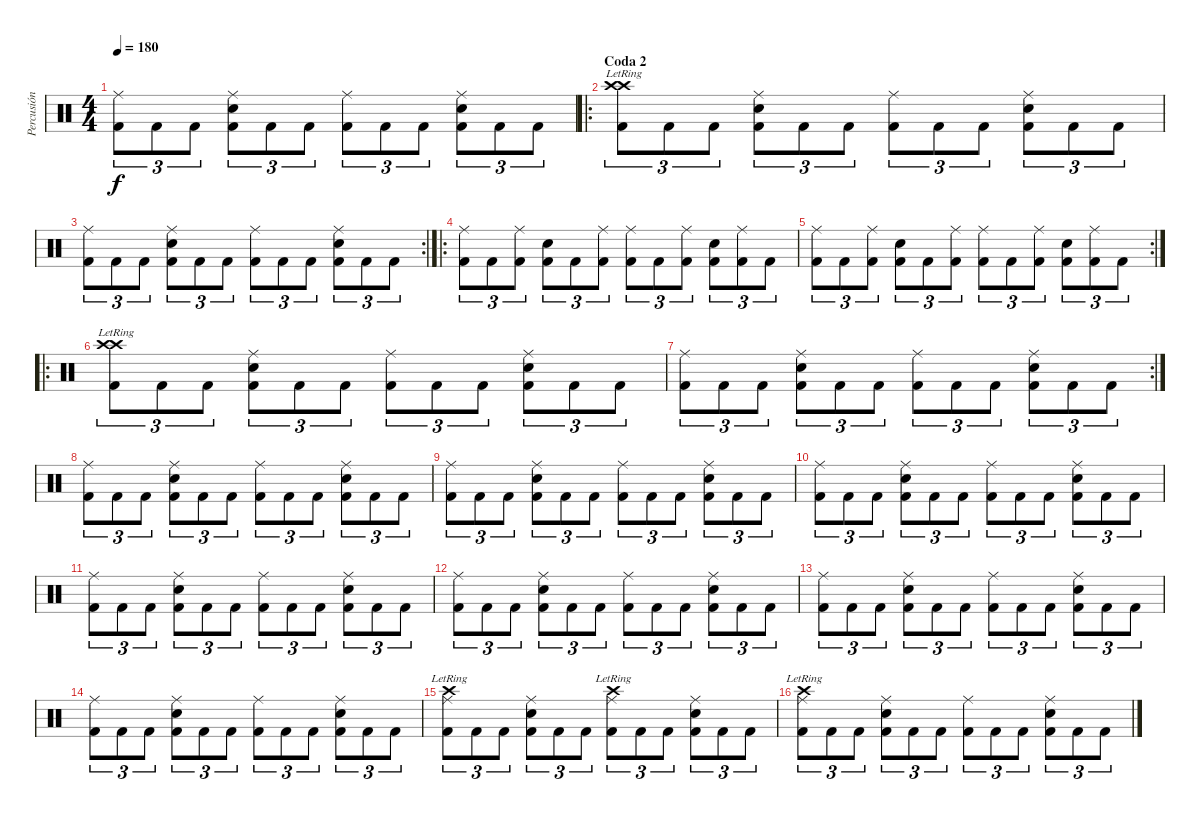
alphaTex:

\track ("Percusión" "Percusión") {instrument percussion}
\staff {score}
\articulation defaults
\ts (4 4)
\tempo 180
\clef neutral
\ks c
("Ride (middle)" "Kick (hit) 2").8{tu (3 2) dy f} "Kick (hit) 2".8{tu (3 2)} "Kick (hit) 2".8{tu (3 2)} ("Ride (middle)" "Snare (hit) 2" "Kick (hit) 2").8{tu (3 2)} "Kick (hit) 2".8{tu (3 2)} "Kick (hit) 2".8{tu (3 2)} ("Ride (middle)" "Kick (hit) 2").8{tu (3 2)} "Kick (hit) 2".8{tu (3 2)} "Kick (hit) 2".8{tu (3 2)} ("Ride (middle)" "Snare (hit) 2" "Kick (hit) 2").8{tu (3 2)} "Kick (hit) 2".8{tu (3 2)} "Kick (hit) 2".8{tu (3 2)} |
\ro
\section ("" "Coda 2")
("Crash high (hit)"{lr} "Crash high (hit)"{lr} "Kick (hit) 2").8{tu (3 2)} "Kick (hit) 2".8{tu (3 2)} "Kick (hit) 2".8{tu (3 2)} ("Ride (middle)" "Snare (hit) 2" "Kick (hit) 2").8{tu (3 2)} "Kick (hit) 2".8{tu (3 2)} "Kick (hit) 2".8{tu (3 2)} ("Ride (middle)" "Kick (hit) 2").8{tu (3 2)} "Kick (hit) 2".8{tu (3 2)} "Kick (hit) 2".8{tu (3 2)} ("Ride (middle)" "Snare (hit) 2" "Kick (hit) 2").8{tu (3 2)} "Kick (hit) 2".8{tu (3 2)} "Kick (hit) 2".8{tu (3 2)} |
\rc 2
("Ride (middle)" "Kick (hit) 2").8{tu (3 2)} "Kick (hit) 2".8{tu (3 2)} "Kick (hit) 2".8{tu (3 2)} ("Ride (middle)" "Snare (hit) 2" "Kick (hit) 2").8{tu (3 2)} "Kick (hit) 2".8{tu (3 2)} "Kick (hit) 2".8{tu (3 2)} ("Ride (middle)" "Kick (hit) 2").8{tu (3 2)} "Kick (hit) 2".8{tu (3 2)} "Kick (hit) 2".8{tu (3 2)} ("Ride (middle)" "Snare (hit) 2" "Kick (hit) 2").8{tu (3 2)} "Kick (hit) 2".8{tu (3 2)} "Kick (hit) 2".8{tu (3 2)} |
\ro
("Ride (middle)" "Kick (hit) 2").8{tu (3 2)} "Kick (hit) 2".8{tu (3 2)} ("Ride (middle)" "Kick (hit) 2").8{tu (3 2)} ("Snare (hit) 2" "Kick (hit) 2").8{tu (3 2)} "Kick (hit) 2".8{tu (3 2)} ("Ride (middle)" "Kick (hit) 2").8{tu (3 2)} ("Ride (middle)" "Kick (hit) 2").8{tu (3 2)} "Kick (hit) 2".8{tu (3 2)} ("Ride (middle)" "Kick (hit) 2").8{tu (3 2)} ("Snare (hit) 2" "Kick (hit) 2").8{tu (3 2)} ("Ride (middle)" "Kick (hit) 2").8{tu (3 2)} "Kick (hit) 2".8{tu (3 2)} |
\rc 2
("Ride (middle)" "Kick (hit) 2").8{tu (3 2)} "Kick (hit) 2".8{tu (3 2)} ("Ride (middle)" "Kick (hit) 2").8{tu (3 2)} ("Snare (hit) 2" "Kick (hit) 2").8{tu (3 2)} "Kick (hit) 2".8{tu (3 2)} ("Ride (middle)" "Kick (hit) 2").8{tu (3 2)} ("Ride (middle)" "Kick (hit) 2").8{tu (3 2)} "Kick (hit) 2".8{tu (3 2)} ("Ride (middle)" "Kick (hit) 2").8{tu (3 2)} ("Snare (hit) 2" "Kick (hit) 2").8{tu (3 2)} ("Ride (middle)" "Kick (hit) 2").8{tu (3 2)} "Kick (hit) 2".8{tu (3 2)} |
\ro
("Crash high (hit)"{lr} "Crash high (hit)"{lr} "Kick (hit) 2").8{tu (3 2)} "Kick (hit) 2".8{tu (3 2)} "Kick (hit) 2".8{tu (3 2)} ("Ride (middle)" "Snare (hit) 2" "Kick (hit) 2").8{tu (3 2)} "Kick (hit) 2".8{tu (3 2)} "Kick (hit) 2".8{tu (3 2)} ("Ride (middle)" "Kick (hit) 2").8{tu (3 2)} "Kick (hit) 2".8{tu (3 2)} "Kick (hit) 2".8{tu (3 2)} ("Ride (middle)" "Snare (hit) 2" "Kick (hit) 2").8{tu (3 2)} "Kick (hit) 2".8{tu (3 2)} "Kick (hit) 2".8{tu (3 2)} |
\rc 2
("Ride (middle)" "Kick (hit) 2").8{tu (3 2)} "Kick (hit) 2".8{tu (3 2)} "Kick (hit) 2".8{tu (3 2)} ("Ride (middle)" "Snare (hit) 2" "Kick (hit) 2").8{tu (3 2)} "Kick (hit) 2".8{tu (3 2)} "Kick (hit) 2".8{tu (3 2)} ("Ride (middle)" "Kick (hit) 2").8{tu (3 2)} "Kick (hit) 2".8{tu (3 2)} "Kick (hit) 2".8{tu (3 2)} ("Ride (middle)" "Snare (hit) 2" "Kick (hit) 2").8{tu (3 2)} "Kick (hit) 2".8{tu (3 2)} "Kick (hit) 2".8{tu (3 2)} |
("Ride (middle)" "Kick (hit) 2").8{tu (3 2)} "Kick (hit) 2".8{tu (3 2)} "Kick (hit) 2".8{tu (3 2)} ("Ride (middle)" "Snare (hit) 2" "Kick (hit) 2").8{tu (3 2)} "Kick (hit) 2".8{tu (3 2)} "Kick (hit) 2".8{tu (3 2)} ("Ride (middle)" "Kick (hit) 2").8{tu (3 2)} "Kick (hit) 2".8{tu (3 2)} "Kick (hit) 2".8{tu (3 2)} ("Ride (middle)" "Snare (hit) 2" "Kick (hit) 2").8{tu (3 2)} "Kick (hit) 2".8{tu (3 2)} "Kick (hit) 2".8{tu (3 2)} |
("Ride (middle)" "Kick (hit) 2").8{tu (3 2)} "Kick (hit) 2".8{tu (3 2)} "Kick (hit) 2".8{tu (3 2)} ("Ride (middle)" "Snare (hit) 2" "Kick (hit) 2").8{tu (3 2)} "Kick (hit) 2".8{tu (3 2)} "Kick (hit) 2".8{tu (3 2)} ("Ride (middle)" "Kick (hit) 2").8{tu (3 2)} "Kick (hit) 2".8{tu (3 2)} "Kick (hit) 2".8{tu (3 2)} ("Ride (middle)" "Snare (hit) 2" "Kick (hit) 2").8{tu (3 2)} "Kick (hit) 2".8{tu (3 2)} "Kick (hit) 2".8{tu (3 2)} |
("Ride (middle)" "Kick (hit) 2").8{tu (3 2)} "Kick (hit) 2".8{tu (3 2)} "Kick (hit) 2".8{tu (3 2)} ("Ride (middle)" "Snare (hit) 2" "Kick (hit) 2").8{tu (3 2)} "Kick (hit) 2".8{tu (3 2)} "Kick (hit) 2".8{tu (3 2)} ("Ride (middle)" "Kick (hit) 2").8{tu (3 2)} "Kick (hit) 2".8{tu (3 2)} "Kick (hit) 2".8{tu (3 2)} ("Ride (middle)" "Snare (hit) 2" "Kick (hit) 2").8{tu (3 2)} "Kick (hit) 2".8{tu (3 2)} "Kick (hit) 2".8{tu (3 2)} |
("Ride (middle)" "Kick (hit) 2").8{tu (3 2)} "Kick (hit) 2".8{tu (3 2)} "Kick (hit) 2".8{tu (3 2)} ("Ride (middle)" "Snare (hit) 2" "Kick (hit) 2").8{tu (3 2)} "Kick (hit) 2".8{tu (3 2)} "Kick (hit) 2".8{tu (3 2)} ("Ride (middle)" "Kick (hit) 2").8{tu (3 2)} "Kick (hit) 2".8{tu (3 2)} "Kick (hit) 2".8{tu (3 2)} ("Ride (middle)" "Snare (hit) 2" "Kick (hit) 2").8{tu (3 2)} "Kick (hit) 2".8{tu (3 2)} "Kick (hit) 2".8{tu (3 2)} |
("Ride (middle)" "Kick (hit) 2").8{tu (3 2)} "Kick (hit) 2".8{tu (3 2)} "Kick (hit) 2".8{tu (3 2)} ("Ride (middle)" "Snare (hit) 2" "Kick (hit) 2").8{tu (3 2)} "Kick (hit) 2".8{tu (3 2)} "Kick (hit) 2".8{tu (3 2)} ("Ride (middle)" "Kick (hit) 2").8{tu (3 2)} "Kick (hit) 2".8{tu (3 2)} "Kick (hit) 2".8{tu (3 2)} ("Ride (middle)" "Snare (hit) 2" "Kick (hit) 2").8{tu (3 2)} "Kick (hit) 2".8{tu (3 2)} "Kick (hit) 2".8{tu (3 2)} |
("Ride (middle)" "Kick (hit) 2").8{tu (3 2)} "Kick (hit) 2".8{tu (3 2)} "Kick (hit) 2".8{tu (3 2)} ("Ride (middle)" "Snare (hit) 2" "Kick (hit) 2").8{tu (3 2)} "Kick (hit) 2".8{tu (3 2)} "Kick (hit) 2".8{tu (3 2)} ("Ride (middle)" "Kick (hit) 2").8{tu (3 2)} "Kick (hit) 2".8{tu (3 2)} "Kick (hit) 2".8{tu (3 2)} ("Ride (middle)" "Snare (hit) 2" "Kick (hit) 2").8{tu (3 2)} "Kick (hit) 2".8{tu (3 2)} "Kick (hit) 2".8{tu (3 2)} |
("Ride (middle)" "Kick (hit) 2").8{tu (3 2)} "Kick (hit) 2".8{tu (3 2)} "Kick (hit) 2".8{tu (3 2)} ("Ride (middle)" "Snare (hit) 2" "Kick (hit) 2").8{tu (3 2)} "Kick (hit) 2".8{tu (3 2)} "Kick (hit) 2".8{tu (3 2)} ("Ride (middle)" "Kick (hit) 2").8{tu (3 2)} "Kick (hit) 2".8{tu (3 2)} "Kick (hit) 2".8{tu (3 2)} ("Ride (middle)" "Snare (hit) 2" "Kick (hit) 2").8{tu (3 2)} "Kick (hit) 2".8{tu (3 2)} "Kick (hit) 2".8{tu (3 2)} |
("Crash high (hit)"{lr} "Ride (middle)" "Kick (hit) 2").8{tu (3 2)} "Kick (hit) 2".8{tu (3 2)} "Kick (hit) 2".8{tu (3 2)} ("Ride (middle)" "Snare (hit) 2" "Kick (hit) 2").8{tu (3 2)} "Kick (hit) 2".8{tu (3 2)} "Kick (hit) 2".8{tu (3 2)} ("Crash high (hit)"{lr} "Ride (middle)" "Kick (hit) 2").8{tu (3 2)} "Kick (hit) 2".8{tu (3 2)} "Kick (hit) 2".8{tu (3 2)} ("Ride (middle)" "Snare (hit) 2" "Kick (hit) 2").8{tu (3 2)} "Kick (hit) 2".8{tu (3 2)} "Kick (hit) 2".8{tu (3 2)} |
("Crash high (hit)"{lr} "Ride (middle)" "Kick (hit) 2").8{tu (3 2)} "Kick (hit) 2".8{tu (3 2)} "Kick (hit) 2".8{tu (3 2)} ("Ride (middle)" "Snare (hit) 2" "Kick (hit) 2").8{tu (3 2)} "Kick (hit) 2".8{tu (3 2)} "Kick (hit) 2".8{tu (3 2)} ("Ride (middle)" "Kick (hit) 2").8{tu (3 2)} "Kick (hit) 2".8{tu (3 2)} "Kick (hit) 2".8{tu (3 2)} ("Ride (middle)" "Snare (hit) 2" "Kick (hit) 2").8{tu (3 2)} "Kick (hit) 2".8{tu (3 2)} "Kick (hit) 2".8{tu (3 2)}
